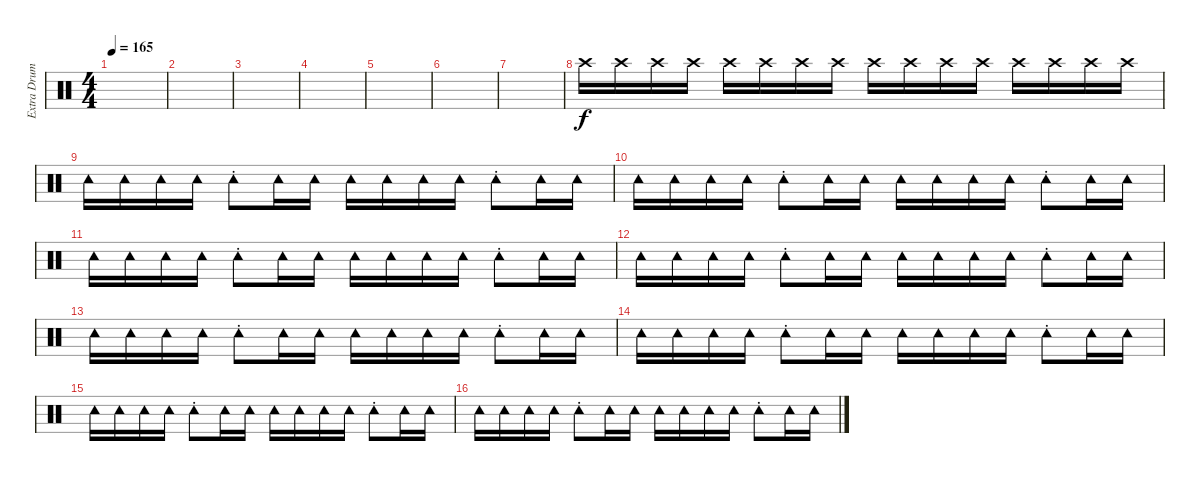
\track ("Extra Drum : Tainaka Risu - Chan" "Extra Drum") {instrument percussion}
\staff {score}
\articulation defaults
\ts (4 4)
\tempo 165
\clef neutral
\ks c
|
|
|
|
|
|
|
"Crash high (hit)".16{volume 13} "Crash high (hit)".16 "Crash high (hit)".16 "Crash high (hit)".16 "Crash high (hit)".16 "Crash high (hit)".16 "Crash high (hit)".16 "Crash high (hit)".16 "Crash high (hit)".16 "Crash high (hit)".16 "Crash high (hit)".16 "Crash high (hit)".16 "Crash high (hit)".16 "Crash high (hit)".16 "Crash high (hit)".16 "Crash high (hit)".16 |
"Tambourine (hit)".16 "Tambourine (hit)".16 "Tambourine (hit)".16 "Tambourine (hit)".16 "Tambourine (hit)"{st}.8 "Tambourine (hit)".16 "Tambourine (hit)".16 "Tambourine (hit)".16 "Tambourine (hit)".16 "Tambourine (hit)".16 "Tambourine (hit)".16 "Tambourine (hit)"{st}.8 "Tambourine (hit)".16 "Tambourine (hit)".16 |
"Tambourine (hit)".16 "Tambourine (hit)".16 "Tambourine (hit)".16 "Tambourine (hit)".16 "Tambourine (hit)"{st}.8 "Tambourine (hit)".16 "Tambourine (hit)".16 "Tambourine (hit)".16 "Tambourine (hit)".16 "Tambourine (hit)".16 "Tambourine (hit)".16 "Tambourine (hit)"{st}.8 "Tambourine (hit)".16 "Tambourine (hit)".16 |
"Tambourine (hit)".16 "Tambourine (hit)".16 "Tambourine (hit)".16 "Tambourine (hit)".16 "Tambourine (hit)"{st}.8 "Tambourine (hit)".16 "Tambourine (hit)".16 "Tambourine (hit)".16 "Tambourine (hit)".16 "Tambourine (hit)".16 "Tambourine (hit)".16 "Tambourine (hit)"{st}.8 "Tambourine (hit)".16 "Tambourine (hit)".16 |
"Tambourine (hit)".16 "Tambourine (hit)".16 "Tambourine (hit)".16 "Tambourine (hit)".16 "Tambourine (hit)"{st}.8 "Tambourine (hit)".16 "Tambourine (hit)".16 "Tambourine (hit)".16 "Tambourine (hit)".16 "Tambourine (hit)".16 "Tambourine (hit)".16 "Tambourine (hit)"{st}.8 "Tambourine (hit)".16 "Tambourine (hit)".16 |
"Tambourine (hit)".16 "Tambourine (hit)".16 "Tambourine (hit)".16 "Tambourine (hit)".16 "Tambourine (hit)"{st}.8 "Tambourine (hit)".16 "Tambourine (hit)".16 "Tambourine (hit)".16 "Tambourine (hit)".16 "Tambourine (hit)".16 "Tambourine (hit)".16 "Tambourine (hit)"{st}.8 "Tambourine (hit)".16 "Tambourine (hit)".16 |
"Tambourine (hit)".16 "Tambourine (hit)".16 "Tambourine (hit)".16 "Tambourine (hit)".16 "Tambourine (hit)"{st}.8 "Tambourine (hit)".16 "Tambourine (hit)".16 "Tambourine (hit)".16 "Tambourine (hit)".16 "Tambourine (hit)".16 "Tambourine (hit)".16 "Tambourine (hit)"{st}.8 "Tambourine (hit)".16 "Tambourine (hit)".16 |
"Tambourine (hit)".16 "Tambourine (hit)".16 "Tambourine (hit)".16 "Tambourine (hit)".16 "Tambourine (hit)"{st}.8 "Tambourine (hit)".16 "Tambourine (hit)".16 "Tambourine (hit)".16 "Tambourine (hit)".16 "Tambourine (hit)".16 "Tambourine (hit)".16 "Tambourine (hit)"{st}.8 "Tambourine (hit)".16 "Tambourine (hit)".16 |
"Tambourine (hit)".16 "Tambourine (hit)".16 "Tambourine (hit)".16 "Tambourine (hit)".16 "Tambourine (hit)"{st}.8 "Tambourine (hit)".16 "Tambourine (hit)".16 "Tambourine (hit)".16 "Tambourine (hit)".16 "Tambourine (hit)".16 "Tambourine (hit)".16 "Tambourine (hit)"{st}.8 "Tambourine (hit)".16 "Tambourine (hit)".16
